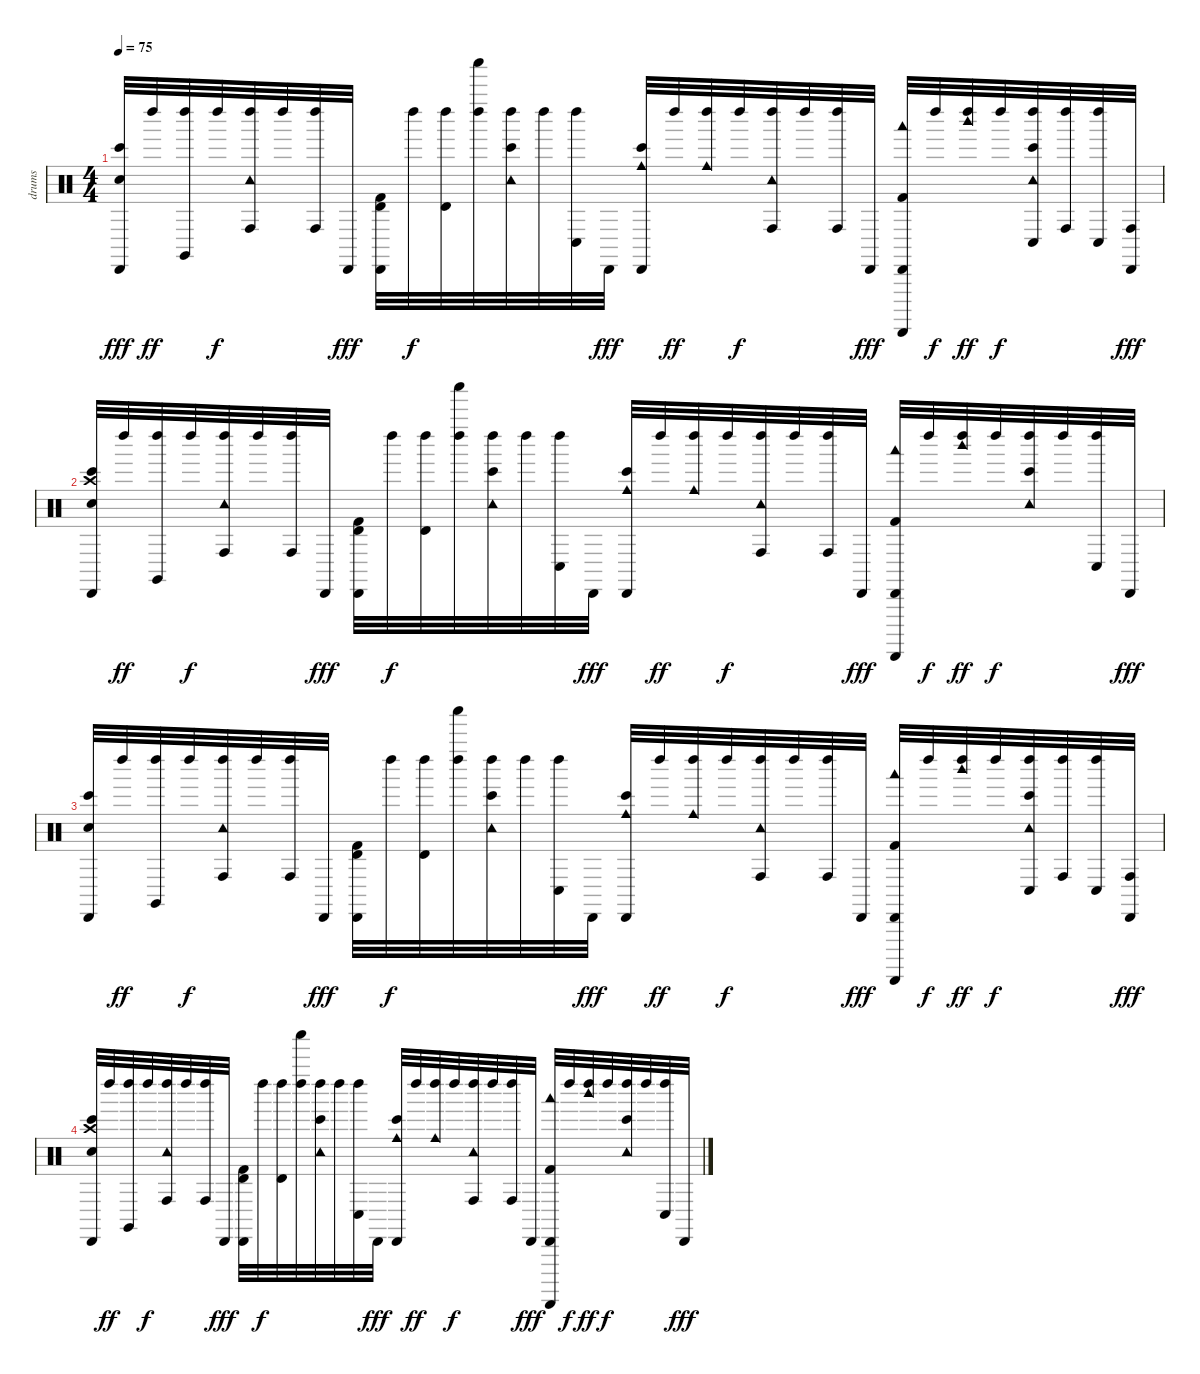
\track ("drums" "drums") {instrument percussion}
\staff {score}
\articulation defaults
\ts (4 4)
\tempo 75
\clef neutral
\ks c
("Snare (hit) 2" "Bongo High (hit)" "Cabasa (hit)").32{dy fff} "Left Maraca (hit)".32{dy ff} ("Claves (hit)" "Left Maraca (hit)").32 "Left Maraca (hit)".32{dy f} ("Conga high (hit)" "Tambourine (hit)" "Left Maraca (hit)").32 "Left Maraca (hit)".32 ("Conga high (hit)" "Left Maraca (hit)").32 "Cabasa (hit)".32{dy fff} ("Timbale high (hit)" "Kick (hit) 2" "Cabasa (hit)").32 "Left Maraca (hit)".32{dy f} ("Timbale high (hit)" "Left Maraca (hit)").32 ("Left Maraca (hit)" "Shaker (hit)").32 ("Bongo High (hit)" "Tambourine (hit)" "Left Maraca (hit)").32 "Left Maraca (hit)".32 ("Conga low (hit)" "Left Maraca (hit)").32 "Cabasa (hit)".32{dy fff} ("Bongo High (hit)" "Cowbell medium (hit)" "Cabasa (hit)").32 "Left Maraca (hit)".32{dy ff} ("Cowbell medium (hit)" "Left Maraca (hit)").32 "Left Maraca (hit)".32{dy f} ("Conga high (hit)" "Tambourine (hit)" "Left Maraca (hit)").32 "Left Maraca (hit)".32 ("Conga high (hit)" "Left Maraca (hit)").32 "Cabasa (hit)".32{dy fff} ("Kick (hit) 2" "Guiro (scrap-return)" "Woodblock low (hit)" "Cabasa (hit)").32 "Left Maraca (hit)".32{dy f} ("Woodblock high (hit)" "Left Maraca (hit)").32{dy ff} "Left Maraca (hit)".32{dy f} ("Bongo High (hit)" "Conga low (hit)" "Tambourine (hit)" "Left Maraca (hit)").32 ("Conga high (hit)" "Left Maraca (hit)").32 ("Conga low (hit)" "Left Maraca (hit)").32 ("Conga high (hit)" "Cabasa (hit)").32{dy fff} |
("Crash high (hit)" "Snare (hit) 2" "Bongo High (hit)" "Cabasa (hit)").32 "Left Maraca (hit)".32{dy ff} ("Claves (hit)" "Left Maraca (hit)").32 "Left Maraca (hit)".32{dy f} ("Conga high (hit)" "Tambourine (hit)" "Left Maraca (hit)").32 "Left Maraca (hit)".32 ("Conga high (hit)" "Left Maraca (hit)").32 "Cabasa (hit)".32{dy fff} ("Timbale high (hit)" "Kick (hit) 2" "Cabasa (hit)").32 "Left Maraca (hit)".32{dy f} ("Timbale high (hit)" "Left Maraca (hit)").32 ("Left Maraca (hit)" "Shaker (hit)").32 ("Bongo High (hit)" "Tambourine (hit)" "Left Maraca (hit)").32 "Left Maraca (hit)".32 ("Conga low (hit)" "Left Maraca (hit)").32 "Cabasa (hit)".32{dy fff} ("Bongo High (hit)" "Cowbell medium (hit)" "Cabasa (hit)").32 "Left Maraca (hit)".32{dy ff} ("Cowbell medium (hit)" "Left Maraca (hit)").32 "Left Maraca (hit)".32{dy f} ("Conga high (hit)" "Tambourine (hit)" "Left Maraca (hit)").32 "Left Maraca (hit)".32 ("Conga high (hit)" "Left Maraca (hit)").32 "Cabasa (hit)".32{dy fff} ("Kick (hit) 2" "Guiro (scrap-return)" "Woodblock low (hit)" "Cabasa (hit)").32 "Left Maraca (hit)".32{dy f} ("Woodblock high (hit)" "Left Maraca (hit)").32{dy ff} "Left Maraca (hit)".32{dy f} ("Bongo High (hit)" "Tambourine (hit)" "Left Maraca (hit)").32 "Left Maraca (hit)".32 ("Conga low (hit)" "Left Maraca (hit)").32 "Cabasa (hit)".32{dy fff} |
("Snare (hit) 2" "Bongo High (hit)" "Cabasa (hit)").32 "Left Maraca (hit)".32{dy ff} ("Claves (hit)" "Left Maraca (hit)").32 "Left Maraca (hit)".32{dy f} ("Conga high (hit)" "Tambourine (hit)" "Left Maraca (hit)").32 "Left Maraca (hit)".32 ("Conga high (hit)" "Left Maraca (hit)").32 "Cabasa (hit)".32{dy fff} ("Timbale high (hit)" "Kick (hit) 2" "Cabasa (hit)").32 "Left Maraca (hit)".32{dy f} ("Timbale high (hit)" "Left Maraca (hit)").32 ("Left Maraca (hit)" "Shaker (hit)").32 ("Bongo High (hit)" "Tambourine (hit)" "Left Maraca (hit)").32 "Left Maraca (hit)".32 ("Conga low (hit)" "Left Maraca (hit)").32 "Cabasa (hit)".32{dy fff} ("Bongo High (hit)" "Cowbell medium (hit)" "Cabasa (hit)").32 "Left Maraca (hit)".32{dy ff} ("Cowbell medium (hit)" "Left Maraca (hit)").32 "Left Maraca (hit)".32{dy f} ("Conga high (hit)" "Tambourine (hit)" "Left Maraca (hit)").32 "Left Maraca (hit)".32 ("Conga high (hit)" "Left Maraca (hit)").32 "Cabasa (hit)".32{dy fff} ("Kick (hit) 2" "Guiro (scrap-return)" "Woodblock low (hit)" "Cabasa (hit)").32 "Left Maraca (hit)".32{dy f} ("Woodblock high (hit)" "Left Maraca (hit)").32{dy ff} "Left Maraca (hit)".32{dy f} ("Bongo High (hit)" "Conga low (hit)" "Tambourine (hit)" "Left Maraca (hit)").32 ("Conga high (hit)" "Left Maraca (hit)").32 ("Conga low (hit)" "Left Maraca (hit)").32 ("Conga high (hit)" "Cabasa (hit)").32{dy fff} |
("Crash high (hit)" "Snare (hit) 2" "Bongo High (hit)" "Cabasa (hit)").32 "Left Maraca (hit)".32{dy ff} ("Claves (hit)" "Left Maraca (hit)").32 "Left Maraca (hit)".32{dy f} ("Conga high (hit)" "Tambourine (hit)" "Left Maraca (hit)").32 "Left Maraca (hit)".32 ("Conga high (hit)" "Left Maraca (hit)").32 "Cabasa (hit)".32{dy fff} ("Timbale high (hit)" "Kick (hit) 2" "Cabasa (hit)").32 "Left Maraca (hit)".32{dy f} ("Timbale high (hit)" "Left Maraca (hit)").32 ("Left Maraca (hit)" "Shaker (hit)").32 ("Bongo High (hit)" "Tambourine (hit)" "Left Maraca (hit)").32 "Left Maraca (hit)".32 ("Conga low (hit)" "Left Maraca (hit)").32 "Cabasa (hit)".32{dy fff} ("Bongo High (hit)" "Cowbell medium (hit)" "Cabasa (hit)").32 "Left Maraca (hit)".32{dy ff} ("Cowbell medium (hit)" "Left Maraca (hit)").32 "Left Maraca (hit)".32{dy f} ("Conga high (hit)" "Tambourine (hit)" "Left Maraca (hit)").32 "Left Maraca (hit)".32 ("Conga high (hit)" "Left Maraca (hit)").32 "Cabasa (hit)".32{dy fff} ("Kick (hit) 2" "Guiro (scrap-return)" "Woodblock low (hit)" "Cabasa (hit)").32 "Left Maraca (hit)".32{dy f} ("Woodblock high (hit)" "Left Maraca (hit)").32{dy ff} "Left Maraca (hit)".32{dy f} ("Bongo High (hit)" "Tambourine (hit)" "Left Maraca (hit)").32 "Left Maraca (hit)".32 ("Conga low (hit)" "Left Maraca (hit)").32 "Cabasa (hit)".32{dy fff}
